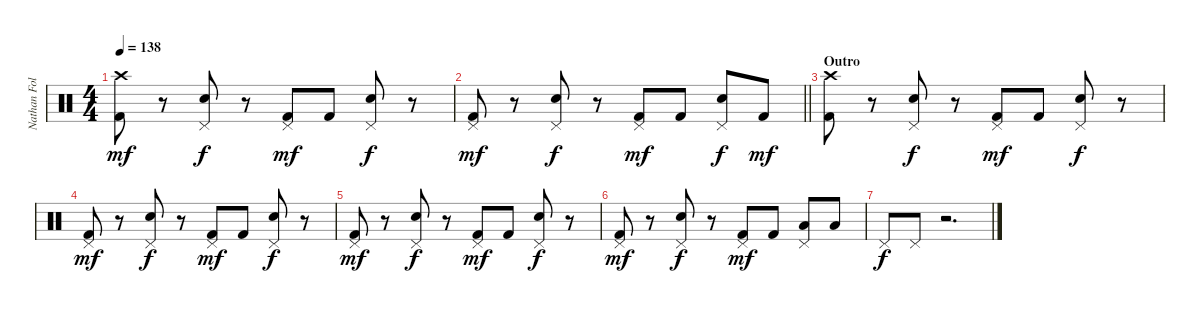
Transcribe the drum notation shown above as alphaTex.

\track ("Nathan Followill" "Nathan Fol") {instrument percussion}
\staff {score}
\articulation defaults
\ts (4 4)
\tempo 138
\clef neutral
\ks c
("Crash high (hit)" "Kick (hit) 2").8{dy mf} r.8 ("Pedal Hi-Hat (hit)" "Snare (hit) 2").8{dy f} r.8 ("Pedal Hi-Hat (hit)" "Kick (hit) 2").8{dy mf} "Kick (hit) 2".8 ("Pedal Hi-Hat (hit)" "Snare (hit) 2").8{dy f} r.8 |
\barLineRight lightlight
("Pedal Hi-Hat (hit)" "Kick (hit) 2").8{dy mf} r.8 ("Pedal Hi-Hat (hit)" "Snare (hit) 2").8{dy f} r.8 ("Pedal Hi-Hat (hit)" "Kick (hit) 2").8{dy mf} "Kick (hit) 2".8 ("Pedal Hi-Hat (hit)" "Snare (hit) 2").8{dy f} "Kick (hit) 2".8{dy mf} |
\section ("" "Outro")
("Crash high (hit)" "Kick (hit) 2").8 r.8 ("Pedal Hi-Hat (hit)" "Snare (hit) 2").8{dy f} r.8 ("Pedal Hi-Hat (hit)" "Kick (hit) 2").8{dy mf} "Kick (hit) 2".8 ("Pedal Hi-Hat (hit)" "Snare (hit) 2").8{dy f} r.8 |
("Pedal Hi-Hat (hit)" "Kick (hit) 2").8{dy mf} r.8 ("Pedal Hi-Hat (hit)" "Snare (hit) 2").8{dy f} r.8 ("Pedal Hi-Hat (hit)" "Kick (hit) 2").8{dy mf} "Kick (hit) 2".8 ("Pedal Hi-Hat (hit)" "Snare (hit) 2").8{dy f} r.8 |
("Pedal Hi-Hat (hit)" "Kick (hit) 2").8{dy mf} r.8 ("Pedal Hi-Hat (hit)" "Snare (hit) 2").8{dy f} r.8 ("Pedal Hi-Hat (hit)" "Kick (hit) 2").8{dy mf} "Kick (hit) 2".8 ("Pedal Hi-Hat (hit)" "Snare (hit) 2").8{dy f} r.8 |
("Pedal Hi-Hat (hit)" "Kick (hit) 2").8{dy mf} r.8 ("Pedal Hi-Hat (hit)" "Snare (hit) 2").8{dy f} r.8 ("Pedal Hi-Hat (hit)" "Kick (hit) 2").8{dy mf} "Kick (hit) 2".8 ("Pedal Hi-Hat (hit)" "Low Floor Tom (hit)").8 "Low Floor Tom (hit)".8 |
"Pedal Hi-Hat (hit)".8{dy f} "Pedal Hi-Hat (hit)".8 r.2{d}
